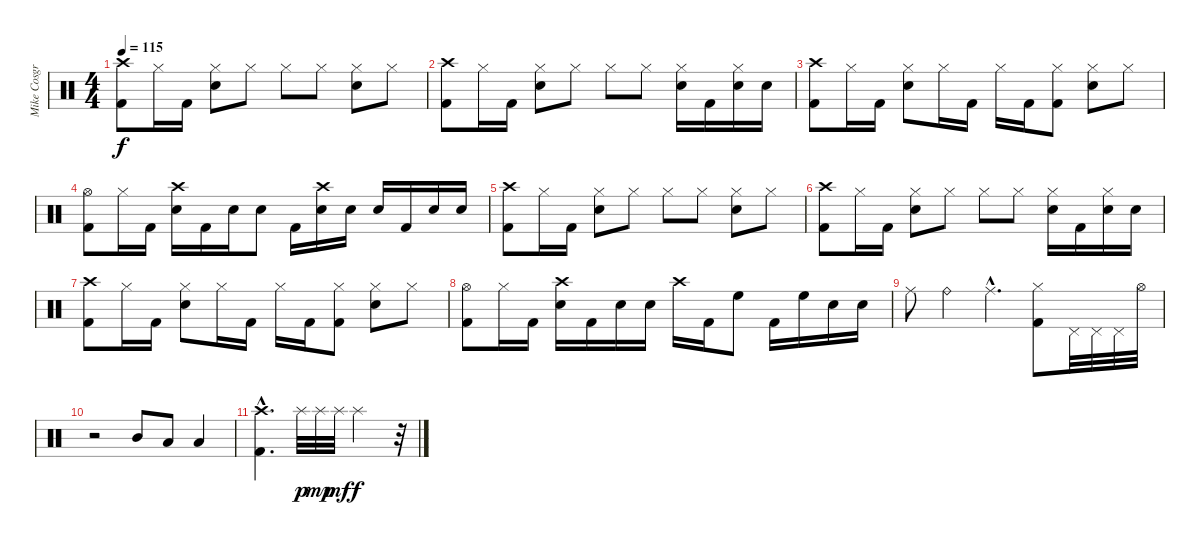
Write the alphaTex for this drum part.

\track ("Mike Cosgrove" "Mike Cosgr") {instrument percussion}
\staff {score}
\articulation defaults
\ts (4 4)
\tempo 115
\clef neutral
\ks c
("Crash high (hit)" "Kick (hit) 2").8{dy f} "Hi-Hat (closed)".16 "Kick (hit) 2".16 ("Hi-Hat (closed)" "Electric Snare (hit)").8 "Hi-Hat (closed)".8 "Hi-Hat (closed)".8 "Hi-Hat (closed)".8 ("Hi-Hat (closed)" "Electric Snare (hit)").8 "Hi-Hat (closed)".8 |
("Crash high (hit)" "Kick (hit) 2").8 "Hi-Hat (closed)".16 "Kick (hit) 2".16 ("Hi-Hat (closed)" "Electric Snare (hit)").8 "Hi-Hat (closed)".8 "Hi-Hat (closed)".8 "Hi-Hat (closed)".8 ("Hi-Hat (closed)" "Electric Snare (hit)").16 "Kick (hit) 2".16 ("Hi-Hat (closed)" "Electric Snare (hit)").16 "Electric Snare (hit)".16 |
("Crash high (hit)" "Kick (hit) 2").8 "Hi-Hat (closed)".16 "Kick (hit) 2".16 ("Hi-Hat (closed)" "Electric Snare (hit)").8 "Hi-Hat (closed)".16 "Kick (hit) 2".16 "Hi-Hat (closed)".16 "Kick (hit) 2".16 ("Hi-Hat (closed)" "Kick (hit) 2").8 ("Hi-Hat (closed)" "Electric Snare (hit)").8 "Hi-Hat (closed)".8 |
("Hi-Hat (open)" "Kick (hit) 2").8 "Hi-Hat (closed)".16 "Kick (hit) 2".16 ("Crash high (hit)" "Electric Snare (hit)").16 "Kick (hit) 2".16 "Electric Snare (hit)".16 "Electric Snare (hit)".8 "Kick (hit) 2".16 ("Crash high (hit)" "Electric Snare (hit)").16 "Electric Snare (hit)".16 "Electric Snare (hit)".16 "Kick (hit) 2".16 "Electric Snare (hit)".16 "Electric Snare (hit)".16 |
("Crash high (hit)" "Kick (hit) 2").8 "Hi-Hat (closed)".16 "Kick (hit) 2".16 ("Hi-Hat (closed)" "Electric Snare (hit)").8 "Hi-Hat (closed)".8 "Hi-Hat (closed)".8 "Hi-Hat (closed)".8 ("Hi-Hat (closed)" "Electric Snare (hit)").8 "Hi-Hat (closed)".8 |
("Crash high (hit)" "Kick (hit) 2").8 "Hi-Hat (closed)".16 "Kick (hit) 2".16 ("Hi-Hat (closed)" "Electric Snare (hit)").8 "Hi-Hat (closed)".8 "Hi-Hat (closed)".8 "Hi-Hat (closed)".8 ("Hi-Hat (closed)" "Electric Snare (hit)").16 "Kick (hit) 2".16 ("Hi-Hat (closed)" "Electric Snare (hit)").16 "Electric Snare (hit)".16 |
("Crash high (hit)" "Kick (hit) 2").8 "Hi-Hat (closed)".16 "Kick (hit) 2".16 ("Hi-Hat (closed)" "Electric Snare (hit)").8 "Hi-Hat (closed)".16 "Kick (hit) 2".16 "Hi-Hat (closed)".16 "Kick (hit) 2".16 ("Hi-Hat (closed)" "Kick (hit) 2").8 ("Hi-Hat (closed)" "Electric Snare (hit)").8 "Hi-Hat (closed)".8 |
("Hi-Hat (open)" "Kick (hit) 2").8 "Hi-Hat (closed)".16 "Kick (hit) 2".16 ("Crash high (hit)" "Electric Snare (hit)").16 "Kick (hit) 2".16 "Electric Snare (hit)".16 "Electric Snare (hit)".16 "Crash high (hit)".16 "Kick (hit) 2".16 "High Floor Tom (hit)".8 "Kick (hit) 2".16 "High Floor Tom (hit)".16 "Electric Snare (hit)".16 "Electric Snare (hit)".16 |
"Ride (middle)".8 "Ride (bell)".4 "Ride (middle)"{hac}.4{d} ("Hi-Hat (closed)" "Kick (hit) 2").8 "Pedal Hi-Hat (hit)".32 "Pedal Hi-Hat (hit)".32 "Pedal Hi-Hat (hit)".32 "Hi-Hat (open)".32 |
r.2 "Mid Tom (hit)".8 "Low Tom (hit)".8 "Low Floor Tom (hit)".4 |
("Crash high (hit)"{hac} "Kick (hit) 2"{hac}).4{d} "Splash (hit)".32{dy p} "Splash (hit)".32{dy mp} "Splash (hit)".32{dy mf} "Splash (hit)".2{dy f} r.32
